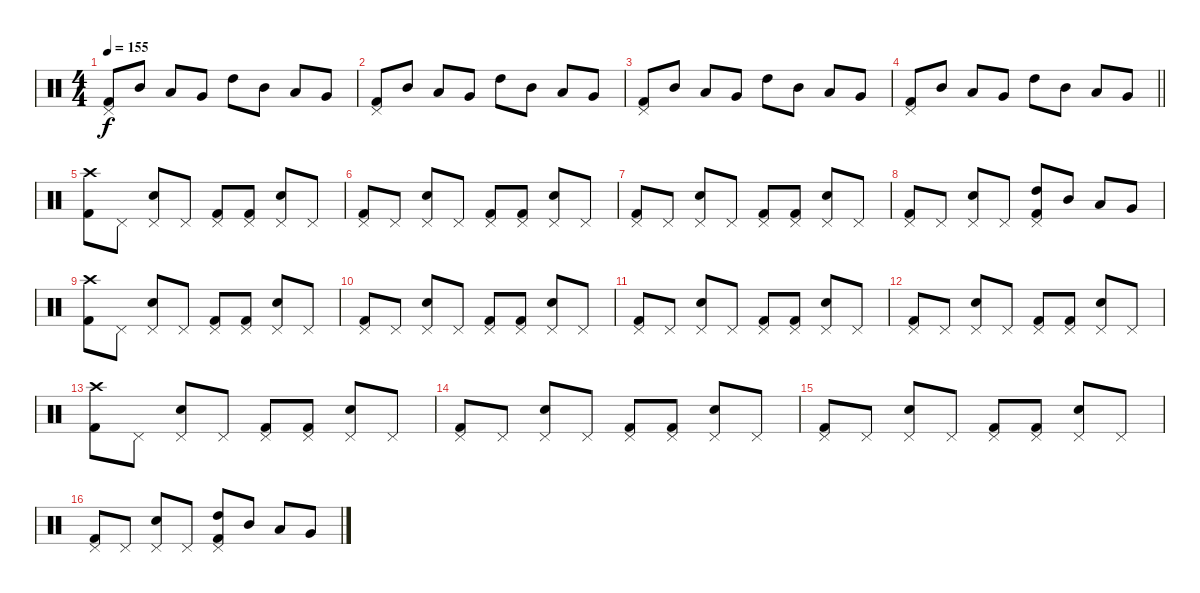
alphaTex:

\track "" {instrument percussion}
\staff {score}
\articulation defaults
\ts (4 4)
\tempo 155
\clef neutral
\ks c
("Pedal Hi-Hat (hit)" "Kick (hit) 2").8{dy f} "Mid Tom (hit)".8 "Low Tom (hit)".8 "Very Low Tom (hit)".8 "High Tom (hit)".8 "Mid Tom (hit)".8 "Low Tom (hit)".8 "Very Low Tom (hit)".8 |
("Pedal Hi-Hat (hit)" "Kick (hit) 2").8 "Mid Tom (hit)".8 "Low Tom (hit)".8 "Very Low Tom (hit)".8 "High Tom (hit)".8 "Mid Tom (hit)".8 "Low Tom (hit)".8 "Very Low Tom (hit)".8 |
("Pedal Hi-Hat (hit)" "Kick (hit) 2").8 "Mid Tom (hit)".8 "Low Tom (hit)".8 "Very Low Tom (hit)".8 "High Tom (hit)".8 "Mid Tom (hit)".8 "Low Tom (hit)".8 "Very Low Tom (hit)".8 |
\barLineRight lightlight
("Pedal Hi-Hat (hit)" "Kick (hit) 2").8 "Mid Tom (hit)".8 "Low Tom (hit)".8 "Very Low Tom (hit)".8 "High Tom (hit)".8 "Mid Tom (hit)".8 "Low Tom (hit)".8 "Very Low Tom (hit)".8 |
\section ("" "")
("Crash high (hit)" "Kick (hit) 2").8 "Pedal Hi-Hat (hit)".8 ("Pedal Hi-Hat (hit)" "Electric Snare (hit)").8 "Pedal Hi-Hat (hit)".8 ("Pedal Hi-Hat (hit)" "Kick (hit) 2").8 ("Pedal Hi-Hat (hit)" "Kick (hit) 2").8 ("Pedal Hi-Hat (hit)" "Electric Snare (hit)").8 "Pedal Hi-Hat (hit)".8 |
("Pedal Hi-Hat (hit)" "Kick (hit) 2").8 "Pedal Hi-Hat (hit)".8 ("Pedal Hi-Hat (hit)" "Electric Snare (hit)").8 "Pedal Hi-Hat (hit)".8 ("Pedal Hi-Hat (hit)" "Kick (hit) 2").8 ("Pedal Hi-Hat (hit)" "Kick (hit) 2").8 ("Pedal Hi-Hat (hit)" "Electric Snare (hit)").8 "Pedal Hi-Hat (hit)".8 |
("Pedal Hi-Hat (hit)" "Kick (hit) 2").8 "Pedal Hi-Hat (hit)".8 ("Pedal Hi-Hat (hit)" "Electric Snare (hit)").8 "Pedal Hi-Hat (hit)".8 ("Pedal Hi-Hat (hit)" "Kick (hit) 2").8 ("Pedal Hi-Hat (hit)" "Kick (hit) 2").8 ("Pedal Hi-Hat (hit)" "Electric Snare (hit)").8 "Pedal Hi-Hat (hit)".8 |
("Pedal Hi-Hat (hit)" "Kick (hit) 2").8 "Pedal Hi-Hat (hit)".8 ("Pedal Hi-Hat (hit)" "Electric Snare (hit)").8 "Pedal Hi-Hat (hit)".8 ("Pedal Hi-Hat (hit)" "High Tom (hit)" "Kick (hit) 2").8 "Mid Tom (hit)".8 "Low Tom (hit)".8 "Very Low Tom (hit)".8 |
("Crash high (hit)" "Kick (hit) 2").8 "Pedal Hi-Hat (hit)".8 ("Pedal Hi-Hat (hit)" "Electric Snare (hit)").8 "Pedal Hi-Hat (hit)".8 ("Pedal Hi-Hat (hit)" "Kick (hit) 2").8 ("Pedal Hi-Hat (hit)" "Kick (hit) 2").8 ("Pedal Hi-Hat (hit)" "Electric Snare (hit)").8 "Pedal Hi-Hat (hit)".8 |
("Pedal Hi-Hat (hit)" "Kick (hit) 2").8 "Pedal Hi-Hat (hit)".8 ("Pedal Hi-Hat (hit)" "Electric Snare (hit)").8 "Pedal Hi-Hat (hit)".8 ("Pedal Hi-Hat (hit)" "Kick (hit) 2").8 ("Pedal Hi-Hat (hit)" "Kick (hit) 2").8 ("Pedal Hi-Hat (hit)" "Electric Snare (hit)").8 "Pedal Hi-Hat (hit)".8 |
("Pedal Hi-Hat (hit)" "Kick (hit) 2").8 "Pedal Hi-Hat (hit)".8 ("Pedal Hi-Hat (hit)" "Electric Snare (hit)").8 "Pedal Hi-Hat (hit)".8 ("Pedal Hi-Hat (hit)" "Kick (hit) 2").8 ("Pedal Hi-Hat (hit)" "Kick (hit) 2").8 ("Pedal Hi-Hat (hit)" "Electric Snare (hit)").8 "Pedal Hi-Hat (hit)".8 |
("Pedal Hi-Hat (hit)" "Kick (hit) 2").8 "Pedal Hi-Hat (hit)".8 ("Pedal Hi-Hat (hit)" "Electric Snare (hit)").8 "Pedal Hi-Hat (hit)".8 ("Pedal Hi-Hat (hit)" "Kick (hit) 2").8 ("Pedal Hi-Hat (hit)" "Kick (hit) 2").8 ("Pedal Hi-Hat (hit)" "Electric Snare (hit)").8 "Pedal Hi-Hat (hit)".8 |
("Crash high (hit)" "Kick (hit) 2").8 "Pedal Hi-Hat (hit)".8 ("Pedal Hi-Hat (hit)" "Electric Snare (hit)").8 "Pedal Hi-Hat (hit)".8 ("Pedal Hi-Hat (hit)" "Kick (hit) 2").8 ("Pedal Hi-Hat (hit)" "Kick (hit) 2").8 ("Pedal Hi-Hat (hit)" "Electric Snare (hit)").8 "Pedal Hi-Hat (hit)".8 |
("Pedal Hi-Hat (hit)" "Kick (hit) 2").8 "Pedal Hi-Hat (hit)".8 ("Pedal Hi-Hat (hit)" "Electric Snare (hit)").8 "Pedal Hi-Hat (hit)".8 ("Pedal Hi-Hat (hit)" "Kick (hit) 2").8 ("Pedal Hi-Hat (hit)" "Kick (hit) 2").8 ("Pedal Hi-Hat (hit)" "Electric Snare (hit)").8 "Pedal Hi-Hat (hit)".8 |
("Pedal Hi-Hat (hit)" "Kick (hit) 2").8 "Pedal Hi-Hat (hit)".8 ("Pedal Hi-Hat (hit)" "Electric Snare (hit)").8 "Pedal Hi-Hat (hit)".8 ("Pedal Hi-Hat (hit)" "Kick (hit) 2").8 ("Pedal Hi-Hat (hit)" "Kick (hit) 2").8 ("Pedal Hi-Hat (hit)" "Electric Snare (hit)").8 "Pedal Hi-Hat (hit)".8 |
("Pedal Hi-Hat (hit)" "Kick (hit) 2").8 "Pedal Hi-Hat (hit)".8 ("Pedal Hi-Hat (hit)" "Electric Snare (hit)").8 "Pedal Hi-Hat (hit)".8 ("Pedal Hi-Hat (hit)" "High Tom (hit)" "Kick (hit) 2").8 "Mid Tom (hit)".8 "Low Tom (hit)".8 "Very Low Tom (hit)".8
